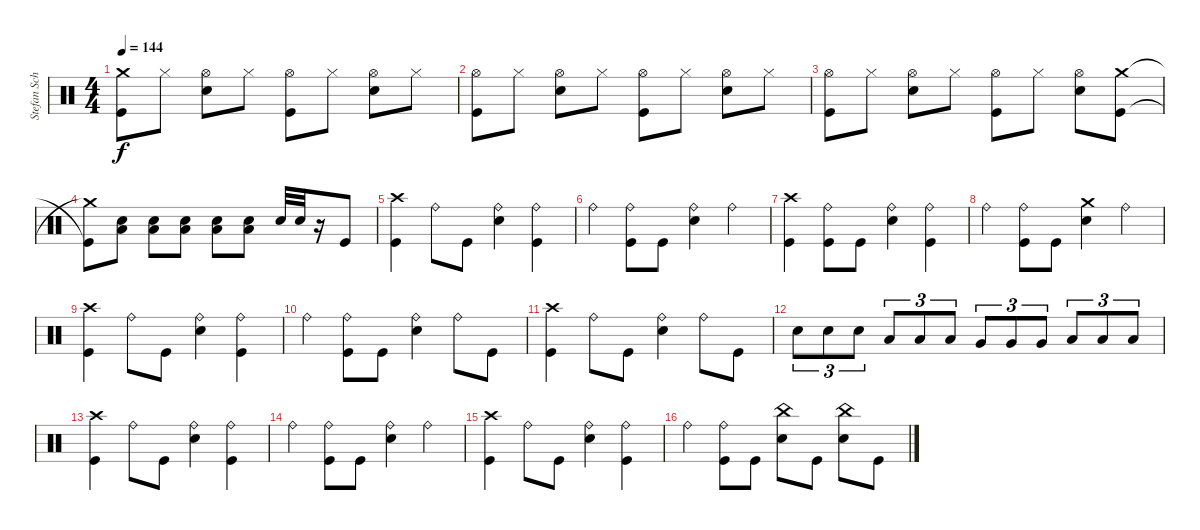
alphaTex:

\track ("Stefan Schwarzmann" "Stefan Sch") {instrument percussion}
\staff {score}
\articulation defaults
\ts (4 4)
\tempo 144
\clef neutral
\ks c
("Kick (hit)"{t} "Crash medium (hit)"{t}).8{dy f} "Hi-Hat (closed)".8 ("Snare (hit) 2" "Hi-Hat (open)").8 "Hi-Hat (closed)".8 ("Kick (hit)" "Hi-Hat (open)").8 "Hi-Hat (closed)".8 ("Snare (hit) 2" "Hi-Hat (open)").8 "Hi-Hat (closed)".8 |
("Kick (hit)" "Hi-Hat (open)").8 "Hi-Hat (closed)".8 ("Snare (hit) 2" "Hi-Hat (open)").8 "Hi-Hat (closed)".8 ("Kick (hit)" "Hi-Hat (open)").8 "Hi-Hat (closed)".8 ("Snare (hit) 2" "Hi-Hat (open)").8 "Hi-Hat (closed)".8 |
("Kick (hit)" "Hi-Hat (open)").8 "Hi-Hat (closed)".8 ("Snare (hit) 2" "Hi-Hat (open)").8 "Hi-Hat (closed)".8 ("Kick (hit)" "Hi-Hat (open)").8 "Hi-Hat (closed)".8 ("Snare (hit) 2" "Hi-Hat (open)").8 ("Crash medium (hit)" "Kick (hit)").8 |
("Kick (hit)"{t} "Crash medium (hit)"{t}).8 ("Snare (hit) 2" "Low Floor Tom (hit)").8 ("Snare (hit) 2" "Low Floor Tom (hit)").8 ("Snare (hit) 2" "Low Floor Tom (hit)").8 ("Snare (hit) 2" "Low Floor Tom (hit)").8 ("Snare (hit) 2" "Low Floor Tom (hit)").8 "Snare (hit) 2".32 "Snare (hit) 2".32 r.16 "Kick (hit)".8 |
("Kick (hit)" "Crash high (hit)").4 "Ride (bell)".8 "Kick (hit)".8 ("Snare (hit) 2" "Ride (bell)").4 ("Kick (hit)" "Ride (bell)").4 |
"Ride (bell)".4 ("Kick (hit)" "Ride (bell)").8 "Kick (hit)".8 ("Snare (hit) 2" "Ride (bell)").4 "Ride (bell)".4 |
("Kick (hit)" "Crash high (hit)").4 ("Ride (bell)" "Kick (hit)").8 "Kick (hit)".8 ("Snare (hit) 2" "Ride (bell)").4 ("Kick (hit)" "Ride (bell)").4 |
"Ride (bell)".4 ("Kick (hit)" "Ride (bell)").8 "Kick (hit)".8 ("Snare (hit) 2" "Crash medium (hit)").4 "Ride (bell)".4 |
("Crash high (hit)" "Kick (hit)").4 "Ride (bell)".8 "Kick (hit)".8 ("Snare (hit) 2" "Ride (bell)").4 ("Kick (hit)" "Ride (bell)").4 |
"Ride (bell)".4 ("Kick (hit)" "Ride (bell)").8 "Kick (hit)".8 ("Snare (hit) 2" "Ride (bell)").4 "Ride (bell)".8 "Kick (hit)".8 |
("Kick (hit)" "Crash high (hit)").4 "Ride (bell)".8 "Kick (hit)".8 ("Snare (hit) 2" "Ride (bell)").4 "Ride (bell)".8 "Kick (hit)".8 |
"Snare (hit) 2".8{tu (3 2)} "Snare (hit) 2".8{tu (3 2)} "Snare (hit) 2".8{tu (3 2)} "Low Tom (hit)".8{tu (3 2)} "Low Tom (hit)".8{tu (3 2)} "Low Tom (hit)".8{tu (3 2)} "Very Low Tom (hit)".8{tu (3 2)} "Very Low Tom (hit)".8{tu (3 2)} "Very Low Tom (hit)".8{tu (3 2)} "Low Floor Tom (hit)".8{tu (3 2)} "Low Floor Tom (hit)".8{tu (3 2)} "Low Floor Tom (hit)".8{tu (3 2)} |
("Kick (hit)" "Crash high (hit)").4 "Ride (bell)".8 "Kick (hit)".8 ("Snare (hit) 2" "Ride (bell)").4 ("Kick (hit)" "Ride (bell)").4 |
"Ride (bell)".4 ("Kick (hit)" "Ride (bell)").8 "Kick (hit)".8 ("Snare (hit) 2" "Ride (bell)").4 "Ride (bell)".4 |
("Crash high (hit)" "Kick (hit)").4 "Ride (bell)".8 "Kick (hit)".8 ("Snare (hit) 2" "Ride (bell)").4 ("Kick (hit)" "Ride (bell)").4 |
"Ride (bell)".4 ("Kick (hit)" "Ride (bell)").8 "Kick (hit)".8 ("Snare (hit) 2" "China (hit)").8 "Kick (hit)".8 ("Snare (hit) 2" "China (hit)").8 "Kick (hit)".8
